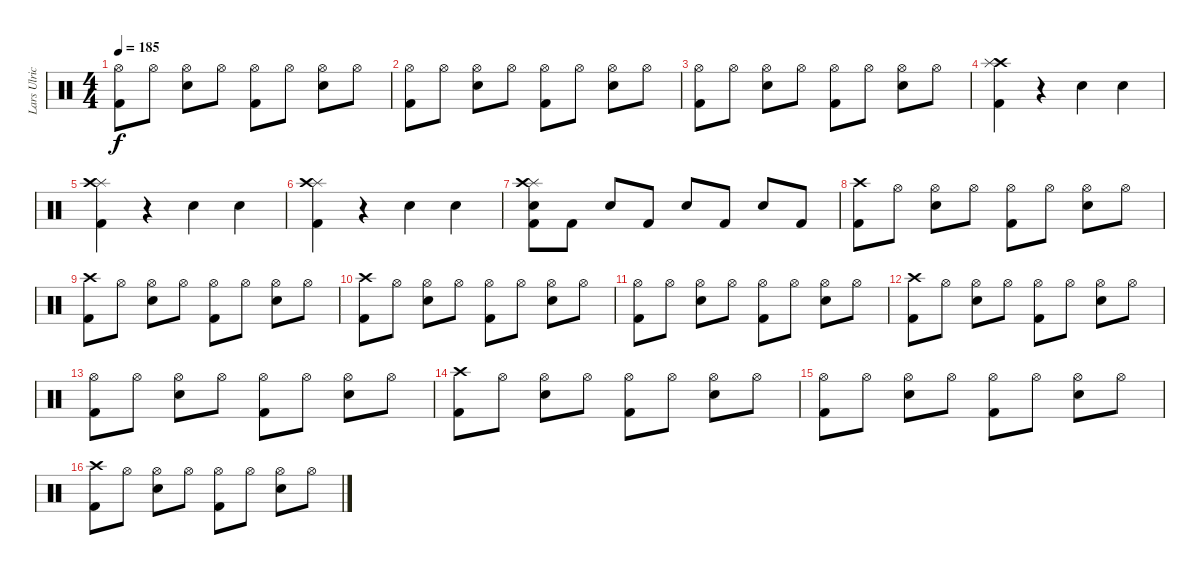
\track ("Lars Ulrich" "Lars Ulric") {instrument percussion}
\staff {score}
\articulation defaults
\ts (4 4)
\tempo 185
\clef neutral
\ks c
("Kick (hit) 2" "Hi-Hat (open)").8{dy f} "Hi-Hat (open)".8 ("Snare (hit) 2" "Hi-Hat (open)").8 "Hi-Hat (open)".8 ("Kick (hit) 2" "Hi-Hat (open)").8 "Hi-Hat (open)".8 ("Snare (hit) 2" "Hi-Hat (open)").8 "Hi-Hat (open)".8 |
("Kick (hit) 2" "Hi-Hat (open)").8 "Hi-Hat (open)".8 ("Snare (hit) 2" "Hi-Hat (open)").8 "Hi-Hat (open)".8 ("Kick (hit) 2" "Hi-Hat (open)").8 "Hi-Hat (open)".8 ("Snare (hit) 2" "Hi-Hat (open)").8 "Hi-Hat (open)".8 |
("Kick (hit) 2" "Hi-Hat (open)").8 "Hi-Hat (open)".8 ("Snare (hit) 2" "Hi-Hat (open)").8 "Hi-Hat (open)".8 ("Kick (hit) 2" "Hi-Hat (open)").8 "Hi-Hat (open)".8 ("Snare (hit) 2" "Hi-Hat (open)").8 "Hi-Hat (open)".8 |
("Kick (hit) 2" "Crash high (hit)" "Splash (hit)").4 r.4 "Snare (hit) 2".4 "Snare (hit) 2".4 |
("Kick (hit) 2" "Splash (hit)" "Crash high (hit)").4 r.4 "Snare (hit) 2".4 "Snare (hit) 2".4 |
("Splash (hit)" "Crash high (hit)" "Kick (hit) 2").4 r.4 "Snare (hit) 2".4 "Snare (hit) 2".4 |
("Snare (hit) 2" "Kick (hit) 2" "Splash (hit)" "Crash high (hit)").8 "Kick (hit) 2".8 "Snare (hit) 2".8 "Kick (hit) 2".8 "Snare (hit) 2".8 "Kick (hit) 2".8 "Snare (hit) 2".8 "Kick (hit) 2".8 |
("Crash high (hit)" "Kick (hit) 2").8 "Hi-Hat (open)".8 ("Snare (hit) 2" "Hi-Hat (open)").8 "Hi-Hat (open)".8 ("Kick (hit) 2" "Hi-Hat (open)").8 "Hi-Hat (open)".8 ("Snare (hit) 2" "Hi-Hat (open)").8 "Hi-Hat (open)".8 |
("Crash high (hit)" "Kick (hit) 2").8 "Hi-Hat (open)".8 ("Snare (hit) 2" "Hi-Hat (open)").8 "Hi-Hat (open)".8 ("Kick (hit) 2" "Hi-Hat (open)").8 "Hi-Hat (open)".8 ("Snare (hit) 2" "Hi-Hat (open)").8 "Hi-Hat (open)".8 |
("Crash high (hit)" "Kick (hit) 2").8 "Hi-Hat (open)".8 ("Snare (hit) 2" "Hi-Hat (open)").8 "Hi-Hat (open)".8 ("Kick (hit) 2" "Hi-Hat (open)").8 "Hi-Hat (open)".8 ("Snare (hit) 2" "Hi-Hat (open)").8 "Hi-Hat (open)".8 |
("Hi-Hat (open)" "Kick (hit) 2").8 "Hi-Hat (open)".8 ("Snare (hit) 2" "Hi-Hat (open)").8 "Hi-Hat (open)".8 ("Kick (hit) 2" "Hi-Hat (open)").8 "Hi-Hat (open)".8 ("Snare (hit) 2" "Hi-Hat (open)").8 "Hi-Hat (open)".8 |
("Crash high (hit)" "Kick (hit) 2").8 "Hi-Hat (open)".8 ("Snare (hit) 2" "Hi-Hat (open)").8 "Hi-Hat (open)".8 ("Kick (hit) 2" "Hi-Hat (open)").8 "Hi-Hat (open)".8 ("Snare (hit) 2" "Hi-Hat (open)").8 "Hi-Hat (open)".8 |
("Hi-Hat (open)" "Kick (hit) 2").8 "Hi-Hat (open)".8 ("Snare (hit) 2" "Hi-Hat (open)").8 "Hi-Hat (open)".8 ("Kick (hit) 2" "Hi-Hat (open)").8 "Hi-Hat (open)".8 ("Snare (hit) 2" "Hi-Hat (open)").8 "Hi-Hat (open)".8 |
("Crash high (hit)" "Kick (hit) 2").8 "Hi-Hat (open)".8 ("Snare (hit) 2" "Hi-Hat (open)").8 "Hi-Hat (open)".8 ("Kick (hit) 2" "Hi-Hat (open)").8 "Hi-Hat (open)".8 ("Snare (hit) 2" "Hi-Hat (open)").8 "Hi-Hat (open)".8 |
("Hi-Hat (open)" "Kick (hit) 2").8 "Hi-Hat (open)".8 ("Snare (hit) 2" "Hi-Hat (open)").8 "Hi-Hat (open)".8 ("Kick (hit) 2" "Hi-Hat (open)").8 "Hi-Hat (open)".8 ("Snare (hit) 2" "Hi-Hat (open)").8 "Hi-Hat (open)".8 |
("Crash high (hit)" "Kick (hit) 2").8 "Hi-Hat (open)".8 ("Snare (hit) 2" "Hi-Hat (open)").8 "Hi-Hat (open)".8 ("Kick (hit) 2" "Hi-Hat (open)").8 "Hi-Hat (open)".8 ("Snare (hit) 2" "Hi-Hat (open)").8 "Hi-Hat (open)".8
